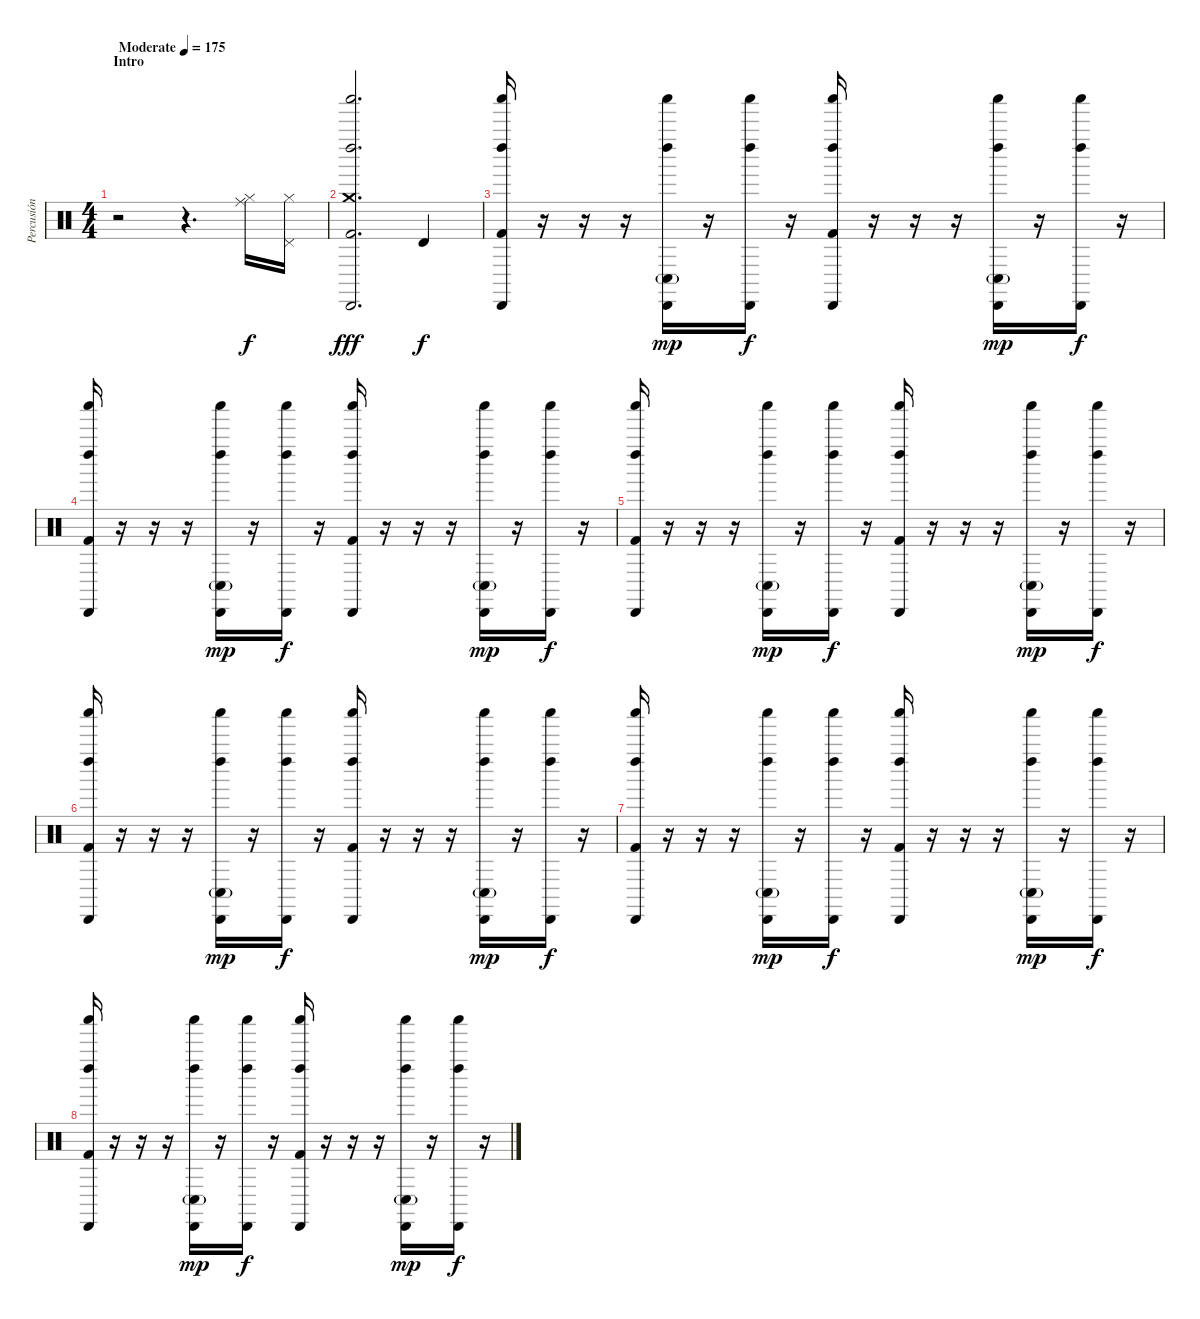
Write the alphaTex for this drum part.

\track ("Percusión" "Percusión") {instrument percussion}
\staff {score}
\articulation defaults
\ts (4 4)
\section ("" "Intro")
\tempo (175 "Moderate")
\clef neutral
\ks c
r.2{dy f} r.4{d} ("Ride (middle)" "Hi-Hat (closed)").16 ("Pedal Hi-Hat (hit)" "Hi-Hat (closed)").16 |
("Cabasa (hit)" "Left Maraca (hit)" "Crash medium (hit)" "Shaker (hit)" "Kick (hit) 2").2{d dy fff} "Timbale high (hit)".4{dy f} |
("Cabasa (hit)" "Shaker (hit)" "Kick (hit) 2" "Left Maraca (hit)").16 r.16 r.16 r.16 ("Cabasa (hit)" "Shaker (hit)" "Conga low (hit)"{g} "Left Maraca (hit)").16{dy mp} r.16 ("Cabasa (hit)" "Shaker (hit)" "Left Maraca (hit)").16{dy f} r.16 ("Cabasa (hit)" "Shaker (hit)" "Kick (hit) 2" "Left Maraca (hit)").16 r.16 r.16 r.16 ("Cabasa (hit)" "Shaker (hit)" "Conga low (hit)"{g} "Left Maraca (hit)").16{dy mp} r.16 ("Cabasa (hit)" "Shaker (hit)" "Left Maraca (hit)").16{dy f} r.16 |
("Cabasa (hit)" "Shaker (hit)" "Kick (hit) 2" "Left Maraca (hit)").16 r.16 r.16 r.16 ("Cabasa (hit)" "Shaker (hit)" "Conga low (hit)"{g} "Left Maraca (hit)").16{dy mp} r.16 ("Cabasa (hit)" "Shaker (hit)" "Left Maraca (hit)").16{dy f} r.16 ("Cabasa (hit)" "Shaker (hit)" "Kick (hit) 2" "Left Maraca (hit)").16 r.16 r.16 r.16 ("Cabasa (hit)" "Shaker (hit)" "Conga low (hit)"{g} "Left Maraca (hit)").16{dy mp} r.16 ("Cabasa (hit)" "Shaker (hit)" "Left Maraca (hit)").16{dy f} r.16 |
("Cabasa (hit)" "Shaker (hit)" "Kick (hit) 2" "Left Maraca (hit)").16 r.16 r.16 r.16 ("Cabasa (hit)" "Shaker (hit)" "Conga low (hit)"{g} "Left Maraca (hit)").16{dy mp} r.16 ("Cabasa (hit)" "Shaker (hit)" "Left Maraca (hit)").16{dy f} r.16 ("Cabasa (hit)" "Shaker (hit)" "Kick (hit) 2" "Left Maraca (hit)").16 r.16 r.16 r.16 ("Cabasa (hit)" "Shaker (hit)" "Conga low (hit)"{g} "Left Maraca (hit)").16{dy mp} r.16 ("Cabasa (hit)" "Shaker (hit)" "Left Maraca (hit)").16{dy f} r.16 |
("Cabasa (hit)" "Shaker (hit)" "Kick (hit) 2" "Left Maraca (hit)").16 r.16 r.16 r.16 ("Cabasa (hit)" "Shaker (hit)" "Conga low (hit)"{g} "Left Maraca (hit)").16{dy mp} r.16 ("Cabasa (hit)" "Shaker (hit)" "Left Maraca (hit)").16{dy f} r.16 ("Cabasa (hit)" "Shaker (hit)" "Kick (hit) 2" "Left Maraca (hit)").16 r.16 r.16 r.16 ("Cabasa (hit)" "Shaker (hit)" "Conga low (hit)"{g} "Left Maraca (hit)").16{dy mp} r.16 ("Cabasa (hit)" "Shaker (hit)" "Left Maraca (hit)").16{dy f} r.16 |
("Cabasa (hit)" "Shaker (hit)" "Kick (hit) 2" "Left Maraca (hit)").16 r.16 r.16 r.16 ("Cabasa (hit)" "Shaker (hit)" "Conga low (hit)"{g} "Left Maraca (hit)").16{dy mp} r.16 ("Cabasa (hit)" "Shaker (hit)" "Left Maraca (hit)").16{dy f} r.16 ("Cabasa (hit)" "Shaker (hit)" "Kick (hit) 2" "Left Maraca (hit)").16 r.16 r.16 r.16 ("Cabasa (hit)" "Shaker (hit)" "Conga low (hit)"{g} "Left Maraca (hit)").16{dy mp} r.16 ("Cabasa (hit)" "Shaker (hit)" "Left Maraca (hit)").16{dy f} r.16 |
("Cabasa (hit)" "Shaker (hit)" "Kick (hit) 2" "Left Maraca (hit)").16 r.16 r.16 r.16 ("Cabasa (hit)" "Shaker (hit)" "Conga low (hit)"{g} "Left Maraca (hit)").16{dy mp} r.16 ("Cabasa (hit)" "Shaker (hit)" "Left Maraca (hit)").16{dy f} r.16 ("Cabasa (hit)" "Shaker (hit)" "Kick (hit) 2" "Left Maraca (hit)").16 r.16 r.16 r.16 ("Cabasa (hit)" "Shaker (hit)" "Conga low (hit)"{g} "Left Maraca (hit)").16{dy mp} r.16 ("Cabasa (hit)" "Shaker (hit)" "Left Maraca (hit)").16{dy f} r.16
